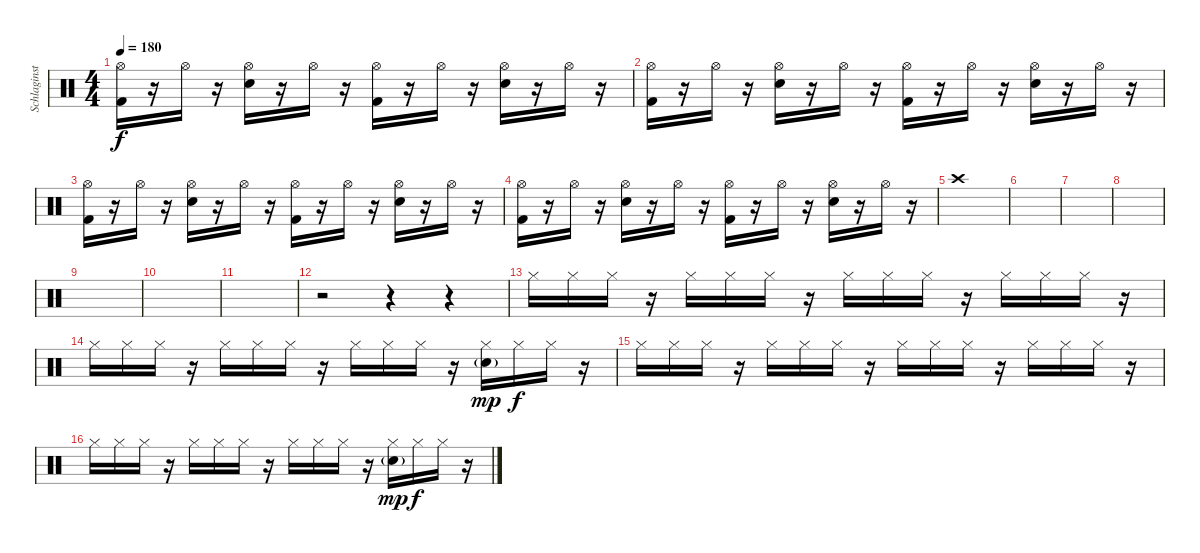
\track ("Schlaginstrumente - Auswahl" "Schlaginst") {instrument percussion}
\staff {score}
\articulation defaults
\ts (4 4)
\tempo 180
\clef neutral
\ks c
("Hi-Hat (open)" "Kick (hit) 2").16{dy f} r.16 "Hi-Hat (open)".16 r.16 ("Hi-Hat (open)" "Snare (hit) 2").16 r.16 "Hi-Hat (open)".16 r.16 ("Hi-Hat (open)" "Kick (hit) 2").16 r.16 "Hi-Hat (open)".16 r.16 ("Hi-Hat (open)" "Snare (hit) 2").16 r.16 "Hi-Hat (open)".16 r.16 |
("Hi-Hat (open)" "Kick (hit) 2").16 r.16 "Hi-Hat (open)".16 r.16 ("Hi-Hat (open)" "Snare (hit) 2").16 r.16 "Hi-Hat (open)".16 r.16 ("Hi-Hat (open)" "Kick (hit) 2").16 r.16 "Hi-Hat (open)".16 r.16 ("Hi-Hat (open)" "Snare (hit) 2").16 r.16 "Hi-Hat (open)".16 r.16 |
("Hi-Hat (open)" "Kick (hit) 2").16 r.16 "Hi-Hat (open)".16 r.16 ("Hi-Hat (open)" "Snare (hit) 2").16 r.16 "Hi-Hat (open)".16 r.16 ("Hi-Hat (open)" "Kick (hit) 2").16 r.16 "Hi-Hat (open)".16 r.16 ("Hi-Hat (open)" "Snare (hit) 2").16 r.16 "Hi-Hat (open)".16 r.16 |
("Hi-Hat (open)" "Kick (hit) 2").16 r.16 "Hi-Hat (open)".16 r.16 ("Hi-Hat (open)" "Snare (hit) 2").16 r.16 "Hi-Hat (open)".16 r.16 ("Hi-Hat (open)" "Kick (hit) 2").16 r.16 "Hi-Hat (open)".16 r.16 ("Hi-Hat (open)" "Snare (hit) 2").16 r.16 "Hi-Hat (open)".16 r.16 |
"Crash high (hit)".1 |
|
|
|
|
|
|
r.2 r.4 r.4 |
"Hi-Hat (closed)".16 "Hi-Hat (closed)".16 "Hi-Hat (closed)".16 r.16 "Hi-Hat (closed)".16 "Hi-Hat (closed)".16 "Hi-Hat (closed)".16 r.16 "Hi-Hat (closed)".16 "Hi-Hat (closed)".16 "Hi-Hat (closed)".16 r.16 "Hi-Hat (closed)".16 "Hi-Hat (closed)".16 "Hi-Hat (closed)".16 r.16 |
"Hi-Hat (closed)".16 "Hi-Hat (closed)".16 "Hi-Hat (closed)".16 r.16 "Hi-Hat (closed)".16 "Hi-Hat (closed)".16 "Hi-Hat (closed)".16 r.16 "Hi-Hat (closed)".16 "Hi-Hat (closed)".16 "Hi-Hat (closed)".16 r.16 ("Hi-Hat (closed)" "Snare (hit) 2"{g}).16{dy mp} "Hi-Hat (closed)".16{dy f} "Hi-Hat (closed)".16 r.16 |
"Hi-Hat (closed)".16 "Hi-Hat (closed)".16 "Hi-Hat (closed)".16 r.16 "Hi-Hat (closed)".16 "Hi-Hat (closed)".16 "Hi-Hat (closed)".16 r.16 "Hi-Hat (closed)".16 "Hi-Hat (closed)".16 "Hi-Hat (closed)".16 r.16 "Hi-Hat (closed)".16 "Hi-Hat (closed)".16 "Hi-Hat (closed)".16 r.16 |
"Hi-Hat (closed)".16 "Hi-Hat (closed)".16 "Hi-Hat (closed)".16 r.16 "Hi-Hat (closed)".16 "Hi-Hat (closed)".16 "Hi-Hat (closed)".16 r.16 "Hi-Hat (closed)".16 "Hi-Hat (closed)".16 "Hi-Hat (closed)".16 r.16 ("Hi-Hat (closed)" "Snare (hit) 2"{g}).16{dy mp} "Hi-Hat (closed)".16{dy f} "Hi-Hat (closed)".16 r.16
